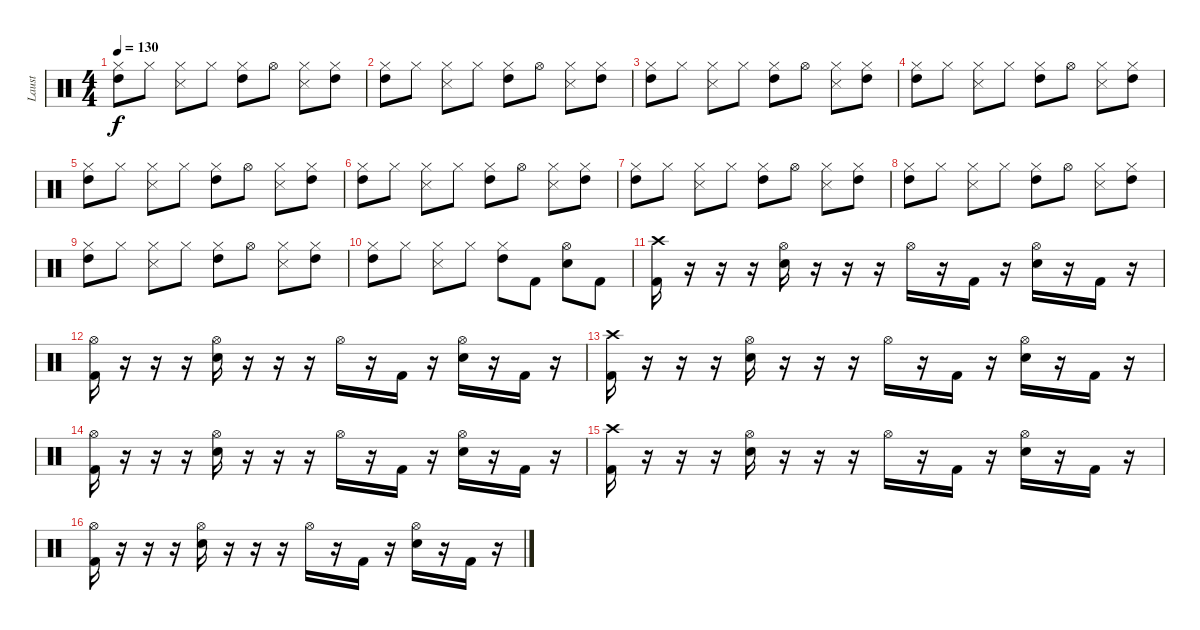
\track ("Laust" "Laust") {instrument percussion}
\staff {score}
\articulation defaults
\ts (4 4)
\tempo 130
\clef neutral
\ks c
("Hi-Hat (closed)" "High Tom (hit)").8{dy f} "Hi-Hat (closed)".8 ("Hi-Hat (closed)" "Snare (side stick) 3").8 "Hi-Hat (closed)".8 ("Hi-Hat (closed)" "High Tom (hit)").8 "Hi-Hat (open)".8 ("Hi-Hat (closed)" "Snare (side stick) 3").8 ("Hi-Hat (closed)" "High Tom (hit)").8 |
("Hi-Hat (closed)" "High Tom (hit)").8 "Hi-Hat (closed)".8 ("Hi-Hat (closed)" "Snare (side stick) 3").8 "Hi-Hat (closed)".8 ("Hi-Hat (closed)" "High Tom (hit)").8 "Hi-Hat (open)".8 ("Hi-Hat (closed)" "Snare (side stick) 3").8 ("Hi-Hat (closed)" "High Tom (hit)").8 |
("Hi-Hat (closed)" "High Tom (hit)").8 "Hi-Hat (closed)".8 ("Hi-Hat (closed)" "Snare (side stick) 3").8 "Hi-Hat (closed)".8 ("Hi-Hat (closed)" "High Tom (hit)").8 "Hi-Hat (open)".8 ("Hi-Hat (closed)" "Snare (side stick) 3").8 ("Hi-Hat (closed)" "High Tom (hit)").8 |
("Hi-Hat (closed)" "High Tom (hit)").8 "Hi-Hat (closed)".8 ("Hi-Hat (closed)" "Snare (side stick) 3").8 "Hi-Hat (closed)".8 ("Hi-Hat (closed)" "High Tom (hit)").8 "Hi-Hat (open)".8 ("Hi-Hat (closed)" "Snare (side stick) 3").8 ("Hi-Hat (closed)" "High Tom (hit)").8 |
("Hi-Hat (closed)" "High Tom (hit)").8 "Hi-Hat (closed)".8 ("Hi-Hat (closed)" "Snare (side stick) 3").8 "Hi-Hat (closed)".8 ("Hi-Hat (closed)" "High Tom (hit)").8 "Hi-Hat (open)".8 ("Hi-Hat (closed)" "Snare (side stick) 3").8 ("Hi-Hat (closed)" "High Tom (hit)").8 |
("Hi-Hat (closed)" "High Tom (hit)").8 "Hi-Hat (closed)".8 ("Hi-Hat (closed)" "Snare (side stick) 3").8 "Hi-Hat (closed)".8 ("Hi-Hat (closed)" "High Tom (hit)").8 "Hi-Hat (open)".8 ("Hi-Hat (closed)" "Snare (side stick) 3").8 ("Hi-Hat (closed)" "High Tom (hit)").8 |
("Hi-Hat (closed)" "High Tom (hit)").8 "Hi-Hat (closed)".8 ("Hi-Hat (closed)" "Snare (side stick) 3").8 "Hi-Hat (closed)".8 ("Hi-Hat (closed)" "High Tom (hit)").8 "Hi-Hat (open)".8 ("Hi-Hat (closed)" "Snare (side stick) 3").8 ("Hi-Hat (closed)" "High Tom (hit)").8 |
("Hi-Hat (closed)" "High Tom (hit)").8 "Hi-Hat (closed)".8 ("Hi-Hat (closed)" "Snare (side stick) 3").8 "Hi-Hat (closed)".8 ("Hi-Hat (closed)" "High Tom (hit)").8 "Hi-Hat (open)".8 ("Hi-Hat (closed)" "Snare (side stick) 3").8 ("Hi-Hat (closed)" "High Tom (hit)").8 |
("Hi-Hat (closed)" "High Tom (hit)").8 "Hi-Hat (closed)".8 ("Hi-Hat (closed)" "Snare (side stick) 3").8 "Hi-Hat (closed)".8 ("Hi-Hat (closed)" "High Tom (hit)").8 "Hi-Hat (open)".8 ("Hi-Hat (closed)" "Snare (side stick) 3").8 ("Hi-Hat (closed)" "High Tom (hit)").8 |
("Hi-Hat (closed)" "High Tom (hit)").8 "Hi-Hat (closed)".8 ("Hi-Hat (closed)" "Snare (side stick) 3").8 "Hi-Hat (closed)".8 ("Hi-Hat (closed)" "High Tom (hit)").8 "Kick (hit) 2".8 ("Hi-Hat (open)" "Snare (hit) 2").8 "Kick (hit) 2".8 |
("Crash high (hit)" "Kick (hit) 2").16 r.16 r.16 r.16 ("Hi-Hat (open)" "Snare (hit) 2").16 r.16 r.16 r.16 "Hi-Hat (open)".16 r.16 "Kick (hit) 2".16 r.16 ("Hi-Hat (open)" "Snare (hit) 2").16 r.16 "Kick (hit) 2".16 r.16 |
("Hi-Hat (open)" "Kick (hit) 2").16 r.16 r.16 r.16 ("Hi-Hat (open)" "Snare (hit) 2").16 r.16 r.16 r.16 "Hi-Hat (open)".16 r.16 "Kick (hit) 2".16 r.16 ("Hi-Hat (open)" "Snare (hit) 2").16 r.16 "Kick (hit) 2".16 r.16 |
("Crash high (hit)" "Kick (hit) 2").16 r.16 r.16 r.16 ("Hi-Hat (open)" "Snare (hit) 2").16 r.16 r.16 r.16 "Hi-Hat (open)".16 r.16 "Kick (hit) 2".16 r.16 ("Hi-Hat (open)" "Snare (hit) 2").16 r.16 "Kick (hit) 2".16 r.16 |
("Hi-Hat (open)" "Kick (hit) 2").16 r.16 r.16 r.16 ("Hi-Hat (open)" "Snare (hit) 2").16 r.16 r.16 r.16 "Hi-Hat (open)".16 r.16 "Kick (hit) 2".16 r.16 ("Hi-Hat (open)" "Snare (hit) 2").16 r.16 "Kick (hit) 2".16 r.16 |
("Crash high (hit)" "Kick (hit) 2").16 r.16 r.16 r.16 ("Hi-Hat (open)" "Snare (hit) 2").16 r.16 r.16 r.16 "Hi-Hat (open)".16 r.16 "Kick (hit) 2".16 r.16 ("Hi-Hat (open)" "Snare (hit) 2").16 r.16 "Kick (hit) 2".16 r.16 |
("Hi-Hat (open)" "Kick (hit) 2").16 r.16 r.16 r.16 ("Hi-Hat (open)" "Snare (hit) 2").16 r.16 r.16 r.16 "Hi-Hat (open)".16 r.16 "Kick (hit) 2".16 r.16 ("Hi-Hat (open)" "Snare (hit) 2").16 r.16 "Kick (hit) 2".16 r.16
